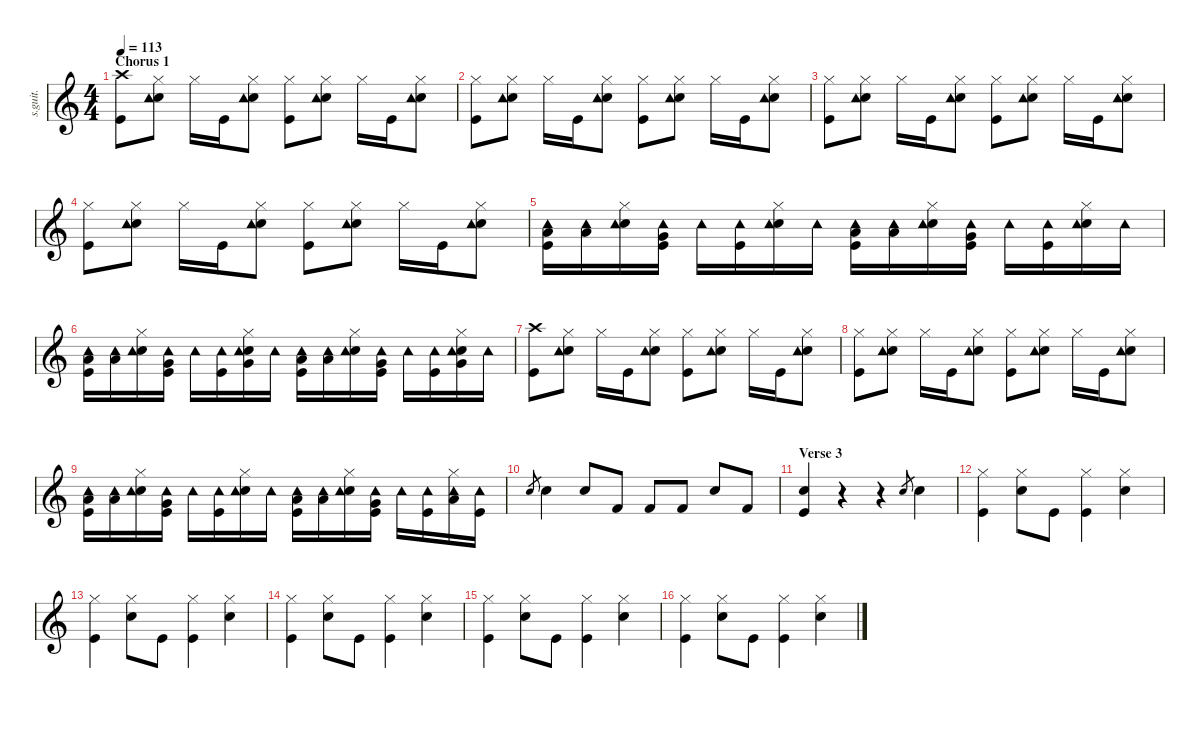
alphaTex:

\defaultSystemsLayout 4
\hideDynamics
\bracketExtendMode nobrackets
\track ("" "s.guit.") {instrument percussion}
\staff {score}
\articulation defaults
\ts (4 4)
\section ("" "Chorus 1")
\tempo 113
\clef g2
\ks c
("Crash high (hit)" "Kick (hit)").8{lyrics (0 "") lyrics (1 "") lyrics (2 "") lyrics (3 "") lyrics (4 "") dy f} ("Hi-Hat (closed)" "Snare (hit) 2" "Tambourine (hit)").8{lyrics (0 "") lyrics (1 "") lyrics (2 "") lyrics (3 "") lyrics (4 "")} "Hi-Hat (closed)".16{lyrics (0 "") lyrics (1 "") lyrics (2 "") lyrics (3 "") lyrics (4 "")} "Kick (hit)".16{lyrics (0 "") lyrics (1 "") lyrics (2 "") lyrics (3 "") lyrics (4 "")} ("Hi-Hat (closed)" "Snare (hit) 2" "Tambourine (hit)").8{lyrics (0 "") lyrics (1 "") lyrics (2 "") lyrics (3 "") lyrics (4 "")} ("Hi-Hat (closed)" "Kick (hit)").8{lyrics (0 "") lyrics (1 "") lyrics (2 "") lyrics (3 "") lyrics (4 "")} ("Hi-Hat (closed)" "Snare (hit) 2" "Tambourine (hit)").8{lyrics (0 "") lyrics (1 "") lyrics (2 "") lyrics (3 "") lyrics (4 "")} "Hi-Hat (closed)".16{lyrics (0 "") lyrics (1 "") lyrics (2 "") lyrics (3 "") lyrics (4 "")} "Kick (hit)".16{lyrics (0 "") lyrics (1 "") lyrics (2 "") lyrics (3 "") lyrics (4 "")} ("Hi-Hat (closed)" "Snare (hit) 2" "Tambourine (hit)").8{lyrics (0 "") lyrics (1 "") lyrics (2 "") lyrics (3 "") lyrics (4 "")} |
("Hi-Hat (closed)" "Kick (hit)").8{lyrics (0 "") lyrics (1 "") lyrics (2 "") lyrics (3 "") lyrics (4 "")} ("Hi-Hat (closed)" "Snare (hit) 2" "Tambourine (hit)").8{lyrics (0 "") lyrics (1 "") lyrics (2 "") lyrics (3 "") lyrics (4 "")} "Hi-Hat (closed)".16{lyrics (0 "") lyrics (1 "") lyrics (2 "") lyrics (3 "") lyrics (4 "")} "Kick (hit)".16{lyrics (0 "") lyrics (1 "") lyrics (2 "") lyrics (3 "") lyrics (4 "")} ("Hi-Hat (closed)" "Snare (hit) 2" "Tambourine (hit)").8{lyrics (0 "") lyrics (1 "") lyrics (2 "") lyrics (3 "") lyrics (4 "")} ("Hi-Hat (closed)" "Kick (hit)").8{lyrics (0 "") lyrics (1 "") lyrics (2 "") lyrics (3 "") lyrics (4 "")} ("Hi-Hat (closed)" "Snare (hit) 2" "Tambourine (hit)").8{lyrics (0 "") lyrics (1 "") lyrics (2 "") lyrics (3 "") lyrics (4 "")} "Hi-Hat (closed)".16{lyrics (0 "") lyrics (1 "") lyrics (2 "") lyrics (3 "") lyrics (4 "")} "Kick (hit)".16{lyrics (0 "") lyrics (1 "") lyrics (2 "") lyrics (3 "") lyrics (4 "")} ("Hi-Hat (closed)" "Snare (hit) 2" "Tambourine (hit)").8{lyrics (0 "") lyrics (1 "") lyrics (2 "") lyrics (3 "") lyrics (4 "")} |
("Hi-Hat (closed)" "Kick (hit)").8{lyrics (0 "") lyrics (1 "") lyrics (2 "") lyrics (3 "") lyrics (4 "")} ("Hi-Hat (closed)" "Snare (hit) 2" "Tambourine (hit)").8{lyrics (0 "") lyrics (1 "") lyrics (2 "") lyrics (3 "") lyrics (4 "")} "Hi-Hat (closed)".16{lyrics (0 "") lyrics (1 "") lyrics (2 "") lyrics (3 "") lyrics (4 "")} "Kick (hit)".16{lyrics (0 "") lyrics (1 "") lyrics (2 "") lyrics (3 "") lyrics (4 "")} ("Hi-Hat (closed)" "Snare (hit) 2" "Tambourine (hit)").8{lyrics (0 "") lyrics (1 "") lyrics (2 "") lyrics (3 "") lyrics (4 "")} ("Hi-Hat (closed)" "Kick (hit)").8{lyrics (0 "") lyrics (1 "") lyrics (2 "") lyrics (3 "") lyrics (4 "")} ("Hi-Hat (closed)" "Snare (hit) 2" "Tambourine (hit)").8{lyrics (0 "") lyrics (1 "") lyrics (2 "") lyrics (3 "") lyrics (4 "")} "Hi-Hat (closed)".16{lyrics (0 "") lyrics (1 "") lyrics (2 "") lyrics (3 "") lyrics (4 "")} "Kick (hit)".16{lyrics (0 "") lyrics (1 "") lyrics (2 "") lyrics (3 "") lyrics (4 "")} ("Hi-Hat (closed)" "Snare (hit) 2" "Tambourine (hit)").8{lyrics (0 "") lyrics (1 "") lyrics (2 "") lyrics (3 "") lyrics (4 "")} |
("Hi-Hat (closed)" "Kick (hit)").8{lyrics (0 "") lyrics (1 "") lyrics (2 "") lyrics (3 "") lyrics (4 "")} ("Hi-Hat (closed)" "Snare (hit) 2" "Tambourine (hit)").8{lyrics (0 "") lyrics (1 "") lyrics (2 "") lyrics (3 "") lyrics (4 "")} "Hi-Hat (closed)".16{lyrics (0 "") lyrics (1 "") lyrics (2 "") lyrics (3 "") lyrics (4 "")} "Kick (hit)".16{lyrics (0 "") lyrics (1 "") lyrics (2 "") lyrics (3 "") lyrics (4 "")} ("Hi-Hat (closed)" "Snare (hit) 2" "Tambourine (hit)").8{lyrics (0 "") lyrics (1 "") lyrics (2 "") lyrics (3 "") lyrics (4 "")} ("Hi-Hat (closed)" "Kick (hit)").8{lyrics (0 "") lyrics (1 "") lyrics (2 "") lyrics (3 "") lyrics (4 "")} ("Hi-Hat (closed)" "Snare (hit) 2" "Tambourine (hit)").8{lyrics (0 "") lyrics (1 "") lyrics (2 "") lyrics (3 "") lyrics (4 "")} "Hi-Hat (closed)".16{lyrics (0 "") lyrics (1 "") lyrics (2 "") lyrics (3 "") lyrics (4 "")} "Kick (hit)".16{lyrics (0 "") lyrics (1 "") lyrics (2 "") lyrics (3 "") lyrics (4 "")} ("Hi-Hat (closed)" "Snare (hit) 2" "Tambourine (hit)").8{lyrics (0 "") lyrics (1 "") lyrics (2 "") lyrics (3 "") lyrics (4 "")} |
("Tambourine (hit)" "Low Tom (hit)" "Kick (hit)").16{lyrics (0 "") lyrics (1 "") lyrics (2 "") lyrics (3 "") lyrics (4 "")} ("Tambourine (hit)" "Low Floor Tom (hit)").16{lyrics (0 "") lyrics (1 "") lyrics (2 "") lyrics (3 "") lyrics (4 "")} ("Hi-Hat (closed)" "Snare (hit) 2" "Tambourine (hit)").16{lyrics (0 "") lyrics (1 "") lyrics (2 "") lyrics (3 "") lyrics (4 "")} ("Tambourine (hit)" "Very Low Tom (hit)" "Kick (hit)").16{lyrics (0 "") lyrics (1 "") lyrics (2 "") lyrics (3 "") lyrics (4 "")} "Tambourine (hit)".16{lyrics (0 "") lyrics (1 "") lyrics (2 "") lyrics (3 "") lyrics (4 "")} ("Tambourine (hit)" "Kick (hit)").16{lyrics (0 "") lyrics (1 "") lyrics (2 "") lyrics (3 "") lyrics (4 "")} ("Hi-Hat (closed)" "Snare (hit) 2" "Tambourine (hit)").16{lyrics (0 "") lyrics (1 "") lyrics (2 "") lyrics (3 "") lyrics (4 "")} "Tambourine (hit)".16{lyrics (0 "") lyrics (1 "") lyrics (2 "") lyrics (3 "") lyrics (4 "")} ("Tambourine (hit)" "Low Tom (hit)" "Kick (hit)").16{lyrics (0 "") lyrics (1 "") lyrics (2 "") lyrics (3 "") lyrics (4 "")} ("Tambourine (hit)" "Low Floor Tom (hit)").16{lyrics (0 "") lyrics (1 "") lyrics (2 "") lyrics (3 "") lyrics (4 "")} ("Hi-Hat (closed)" "Snare (hit) 2" "Tambourine (hit)").16{lyrics (0 "") lyrics (1 "") lyrics (2 "") lyrics (3 "") lyrics (4 "")} ("Tambourine (hit)" "Very Low Tom (hit)" "Kick (hit)").16{lyrics (0 "") lyrics (1 "") lyrics (2 "") lyrics (3 "") lyrics (4 "")} "Tambourine (hit)".16{lyrics (0 "") lyrics (1 "") lyrics (2 "") lyrics (3 "") lyrics (4 "")} ("Tambourine (hit)" "Kick (hit)").16{lyrics (0 "") lyrics (1 "") lyrics (2 "") lyrics (3 "") lyrics (4 "")} ("Hi-Hat (closed)" "Snare (hit) 2" "Tambourine (hit)").16{lyrics (0 "") lyrics (1 "") lyrics (2 "") lyrics (3 "") lyrics (4 "")} "Tambourine (hit)".16{lyrics (0 "") lyrics (1 "") lyrics (2 "") lyrics (3 "") lyrics (4 "")} |
("Tambourine (hit)" "Low Tom (hit)" "Kick (hit)").16{lyrics (0 "") lyrics (1 "") lyrics (2 "") lyrics (3 "") lyrics (4 "")} ("Tambourine (hit)" "Low Floor Tom (hit)").16{lyrics (0 "") lyrics (1 "") lyrics (2 "") lyrics (3 "") lyrics (4 "")} ("Hi-Hat (closed)" "Snare (hit) 2" "Tambourine (hit)").16{lyrics (0 "") lyrics (1 "") lyrics (2 "") lyrics (3 "") lyrics (4 "")} ("Tambourine (hit)" "Very Low Tom (hit)" "Kick (hit)").16{lyrics (0 "") lyrics (1 "") lyrics (2 "") lyrics (3 "") lyrics (4 "")} "Tambourine (hit)".16{lyrics (0 "") lyrics (1 "") lyrics (2 "") lyrics (3 "") lyrics (4 "")} ("Tambourine (hit)" "Kick (hit)").16{lyrics (0 "") lyrics (1 "") lyrics (2 "") lyrics (3 "") lyrics (4 "")} ("Hi-Hat (closed)" "Snare (hit) 2" "Tambourine (hit)" "Very Low Tom (hit)").16{lyrics (0 "") lyrics (1 "") lyrics (2 "") lyrics (3 "") lyrics (4 "")} "Tambourine (hit)".16{lyrics (0 "") lyrics (1 "") lyrics (2 "") lyrics (3 "") lyrics (4 "")} ("Tambourine (hit)" "Low Tom (hit)" "Kick (hit)").16{lyrics (0 "") lyrics (1 "") lyrics (2 "") lyrics (3 "") lyrics (4 "")} ("Tambourine (hit)" "Low Floor Tom (hit)").16{lyrics (0 "") lyrics (1 "") lyrics (2 "") lyrics (3 "") lyrics (4 "")} ("Hi-Hat (closed)" "Snare (hit) 2" "Tambourine (hit)").16{lyrics (0 "") lyrics (1 "") lyrics (2 "") lyrics (3 "") lyrics (4 "")} ("Tambourine (hit)" "Very Low Tom (hit)" "Kick (hit)").16{lyrics (0 "") lyrics (1 "") lyrics (2 "") lyrics (3 "") lyrics (4 "")} "Tambourine (hit)".16{lyrics (0 "") lyrics (1 "") lyrics (2 "") lyrics (3 "") lyrics (4 "")} ("Tambourine (hit)" "Kick (hit)").16{lyrics (0 "") lyrics (1 "") lyrics (2 "") lyrics (3 "") lyrics (4 "")} ("Hi-Hat (closed)" "Snare (hit) 2" "Tambourine (hit)" "Very Low Tom (hit)").16{lyrics (0 "") lyrics (1 "") lyrics (2 "") lyrics (3 "") lyrics (4 "")} "Tambourine (hit)".16{lyrics (0 "") lyrics (1 "") lyrics (2 "") lyrics (3 "") lyrics (4 "")} |
("Crash high (hit)" "Kick (hit)").8{lyrics (0 "") lyrics (1 "") lyrics (2 "") lyrics (3 "") lyrics (4 "")} ("Hi-Hat (closed)" "Snare (hit) 2" "Tambourine (hit)").8{lyrics (0 "") lyrics (1 "") lyrics (2 "") lyrics (3 "") lyrics (4 "")} "Hi-Hat (closed)".16{lyrics (0 "") lyrics (1 "") lyrics (2 "") lyrics (3 "") lyrics (4 "")} "Kick (hit)".16{lyrics (0 "") lyrics (1 "") lyrics (2 "") lyrics (3 "") lyrics (4 "")} ("Hi-Hat (closed)" "Snare (hit) 2" "Tambourine (hit)").8{lyrics (0 "") lyrics (1 "") lyrics (2 "") lyrics (3 "") lyrics (4 "")} ("Hi-Hat (closed)" "Kick (hit)").8{lyrics (0 "") lyrics (1 "") lyrics (2 "") lyrics (3 "") lyrics (4 "")} ("Hi-Hat (closed)" "Snare (hit) 2" "Tambourine (hit)").8{lyrics (0 "") lyrics (1 "") lyrics (2 "") lyrics (3 "") lyrics (4 "")} "Hi-Hat (closed)".16{lyrics (0 "") lyrics (1 "") lyrics (2 "") lyrics (3 "") lyrics (4 "")} "Kick (hit)".16{lyrics (0 "") lyrics (1 "") lyrics (2 "") lyrics (3 "") lyrics (4 "")} ("Hi-Hat (closed)" "Snare (hit) 2" "Tambourine (hit)").8{lyrics (0 "") lyrics (1 "") lyrics (2 "") lyrics (3 "") lyrics (4 "")} |
("Hi-Hat (closed)" "Kick (hit)").8{lyrics (0 "") lyrics (1 "") lyrics (2 "") lyrics (3 "") lyrics (4 "")} ("Hi-Hat (closed)" "Snare (hit) 2" "Tambourine (hit)").8{lyrics (0 "") lyrics (1 "") lyrics (2 "") lyrics (3 "") lyrics (4 "")} "Hi-Hat (closed)".16{lyrics (0 "") lyrics (1 "") lyrics (2 "") lyrics (3 "") lyrics (4 "")} "Kick (hit)".16{lyrics (0 "") lyrics (1 "") lyrics (2 "") lyrics (3 "") lyrics (4 "")} ("Hi-Hat (closed)" "Snare (hit) 2" "Tambourine (hit)").8{lyrics (0 "") lyrics (1 "") lyrics (2 "") lyrics (3 "") lyrics (4 "")} ("Hi-Hat (closed)" "Kick (hit)").8{lyrics (0 "") lyrics (1 "") lyrics (2 "") lyrics (3 "") lyrics (4 "")} ("Hi-Hat (closed)" "Snare (hit) 2" "Tambourine (hit)").8{lyrics (0 "") lyrics (1 "") lyrics (2 "") lyrics (3 "") lyrics (4 "")} "Hi-Hat (closed)".16{lyrics (0 "") lyrics (1 "") lyrics (2 "") lyrics (3 "") lyrics (4 "")} "Kick (hit)".16{lyrics (0 "") lyrics (1 "") lyrics (2 "") lyrics (3 "") lyrics (4 "")} ("Hi-Hat (closed)" "Snare (hit) 2" "Tambourine (hit)").8{lyrics (0 "") lyrics (1 "") lyrics (2 "") lyrics (3 "") lyrics (4 "")} |
("Tambourine (hit)" "Low Tom (hit)" "Kick (hit)").16{lyrics (0 "") lyrics (1 "") lyrics (2 "") lyrics (3 "") lyrics (4 "")} ("Tambourine (hit)" "Low Floor Tom (hit)").16{lyrics (0 "") lyrics (1 "") lyrics (2 "") lyrics (3 "") lyrics (4 "")} ("Hi-Hat (closed)" "Snare (hit) 2" "Tambourine (hit)").16{lyrics (0 "") lyrics (1 "") lyrics (2 "") lyrics (3 "") lyrics (4 "")} ("Tambourine (hit)" "Very Low Tom (hit)" "Kick (hit)").16{lyrics (0 "") lyrics (1 "") lyrics (2 "") lyrics (3 "") lyrics (4 "")} "Tambourine (hit)".16{lyrics (0 "") lyrics (1 "") lyrics (2 "") lyrics (3 "") lyrics (4 "")} ("Tambourine (hit)" "Kick (hit)").16{lyrics (0 "") lyrics (1 "") lyrics (2 "") lyrics (3 "") lyrics (4 "")} ("Hi-Hat (closed)" "Snare (hit) 2" "Tambourine (hit)").16{lyrics (0 "") lyrics (1 "") lyrics (2 "") lyrics (3 "") lyrics (4 "")} "Tambourine (hit)".16{lyrics (0 "") lyrics (1 "") lyrics (2 "") lyrics (3 "") lyrics (4 "")} ("Tambourine (hit)" "Low Tom (hit)" "Kick (hit)").16{lyrics (0 "") lyrics (1 "") lyrics (2 "") lyrics (3 "") lyrics (4 "")} ("Tambourine (hit)" "Low Floor Tom (hit)").16{lyrics (0 "") lyrics (1 "") lyrics (2 "") lyrics (3 "") lyrics (4 "")} ("Hi-Hat (closed)" "Snare (hit) 2" "Tambourine (hit)").16{lyrics (0 "") lyrics (1 "") lyrics (2 "") lyrics (3 "") lyrics (4 "")} ("Tambourine (hit)" "Very Low Tom (hit)" "Kick (hit)").16{lyrics (0 "") lyrics (1 "") lyrics (2 "") lyrics (3 "") lyrics (4 "")} "Tambourine (hit)".16{lyrics (0 "") lyrics (1 "") lyrics (2 "") lyrics (3 "") lyrics (4 "")} ("Tambourine (hit)" "Kick (hit)").16{lyrics (0 "") lyrics (1 "") lyrics (2 "") lyrics (3 "") lyrics (4 "")} ("Hi-Hat (closed)" "Tambourine (hit)" "Low Tom (hit)").16{lyrics (0 "") lyrics (1 "") lyrics (2 "") lyrics (3 "") lyrics (4 "")} ("Tambourine (hit)" "Kick (hit)").16{lyrics (0 "") lyrics (1 "") lyrics (2 "") lyrics (3 "") lyrics (4 "")} |
"Snare (hit) 2".8{lyrics (0 "") lyrics (1 "") lyrics (2 "") lyrics (3 "") lyrics (4 "") gr} "Snare (hit) 2".4{lyrics (0 "") lyrics (1 "") lyrics (2 "") lyrics (3 "") lyrics (4 "")} "Snare (hit) 2".8{lyrics (0 "") lyrics (1 "") lyrics (2 "") lyrics (3 "") lyrics (4 "")} "Kick (hit) 2".8{lyrics (0 "") lyrics (1 "") lyrics (2 "") lyrics (3 "") lyrics (4 "")} "Kick (hit) 2".8{lyrics (0 "") lyrics (1 "") lyrics (2 "") lyrics (3 "") lyrics (4 "")} "Kick (hit) 2".8{lyrics (0 "") lyrics (1 "") lyrics (2 "") lyrics (3 "") lyrics (4 "")} "Snare (hit) 2".8{lyrics (0 "") lyrics (1 "") lyrics (2 "") lyrics (3 "") lyrics (4 "")} "Kick (hit) 2".8{lyrics (0 "") lyrics (1 "") lyrics (2 "") lyrics (3 "") lyrics (4 "")} |
\section ("" "Verse 3")
("Snare (hit) 2" "Kick (hit)").4{lyrics (0 "") lyrics (1 "") lyrics (2 "") lyrics (3 "") lyrics (4 "")} r.4 r.4 "Snare (hit) 2".8{lyrics (0 "") lyrics (1 "") lyrics (2 "") lyrics (3 "") lyrics (4 "") gr} "Snare (hit) 2".4{lyrics (0 "") lyrics (1 "") lyrics (2 "") lyrics (3 "") lyrics (4 "")} |
("Hi-Hat (closed)" "Kick (hit)").4{lyrics (0 "") lyrics (1 "") lyrics (2 "") lyrics (3 "") lyrics (4 "")} ("Hi-Hat (closed)" "Snare (hit) 2").8{lyrics (0 "") lyrics (1 "") lyrics (2 "") lyrics (3 "") lyrics (4 "")} "Kick (hit)".8{lyrics (0 "") lyrics (1 "") lyrics (2 "") lyrics (3 "") lyrics (4 "")} ("Hi-Hat (closed)" "Kick (hit)").4{lyrics (0 "") lyrics (1 "") lyrics (2 "") lyrics (3 "") lyrics (4 "")} ("Hi-Hat (closed)" "Snare (hit) 2").4{lyrics (0 "") lyrics (1 "") lyrics (2 "") lyrics (3 "") lyrics (4 "")} |
("Hi-Hat (closed)" "Kick (hit)").4{lyrics (0 "") lyrics (1 "") lyrics (2 "") lyrics (3 "") lyrics (4 "")} ("Hi-Hat (closed)" "Snare (hit) 2").8{lyrics (0 "") lyrics (1 "") lyrics (2 "") lyrics (3 "") lyrics (4 "")} "Kick (hit)".8{lyrics (0 "") lyrics (1 "") lyrics (2 "") lyrics (3 "") lyrics (4 "")} ("Hi-Hat (closed)" "Kick (hit)").4{lyrics (0 "") lyrics (1 "") lyrics (2 "") lyrics (3 "") lyrics (4 "")} ("Hi-Hat (closed)" "Snare (hit) 2").4{lyrics (0 "") lyrics (1 "") lyrics (2 "") lyrics (3 "") lyrics (4 "")} |
("Hi-Hat (closed)" "Kick (hit)").4{lyrics (0 "") lyrics (1 "") lyrics (2 "") lyrics (3 "") lyrics (4 "")} ("Hi-Hat (closed)" "Snare (hit) 2").8{lyrics (0 "") lyrics (1 "") lyrics (2 "") lyrics (3 "") lyrics (4 "")} "Kick (hit)".8{lyrics (0 "") lyrics (1 "") lyrics (2 "") lyrics (3 "") lyrics (4 "")} ("Hi-Hat (closed)" "Kick (hit)").4{lyrics (0 "") lyrics (1 "") lyrics (2 "") lyrics (3 "") lyrics (4 "")} ("Hi-Hat (closed)" "Snare (hit) 2").4{lyrics (0 "") lyrics (1 "") lyrics (2 "") lyrics (3 "") lyrics (4 "")} |
("Hi-Hat (closed)" "Kick (hit)").4{lyrics (0 "") lyrics (1 "") lyrics (2 "") lyrics (3 "") lyrics (4 "")} ("Hi-Hat (closed)" "Snare (hit) 2").8{lyrics (0 "") lyrics (1 "") lyrics (2 "") lyrics (3 "") lyrics (4 "")} "Kick (hit)".8{lyrics (0 "") lyrics (1 "") lyrics (2 "") lyrics (3 "") lyrics (4 "")} ("Hi-Hat (closed)" "Kick (hit)").4{lyrics (0 "") lyrics (1 "") lyrics (2 "") lyrics (3 "") lyrics (4 "")} ("Hi-Hat (closed)" "Snare (hit) 2").4{lyrics (0 "") lyrics (1 "") lyrics (2 "") lyrics (3 "") lyrics (4 "")} |
("Hi-Hat (closed)" "Kick (hit)").4{lyrics (0 "") lyrics (1 "") lyrics (2 "") lyrics (3 "") lyrics (4 "")} ("Hi-Hat (closed)" "Snare (hit) 2").8{lyrics (0 "") lyrics (1 "") lyrics (2 "") lyrics (3 "") lyrics (4 "")} "Kick (hit)".8{lyrics (0 "") lyrics (1 "") lyrics (2 "") lyrics (3 "") lyrics (4 "")} ("Hi-Hat (closed)" "Kick (hit)").4{lyrics (0 "") lyrics (1 "") lyrics (2 "") lyrics (3 "") lyrics (4 "")} ("Hi-Hat (closed)" "Snare (hit) 2").4{lyrics (0 "") lyrics (1 "") lyrics (2 "") lyrics (3 "") lyrics (4 "")}
